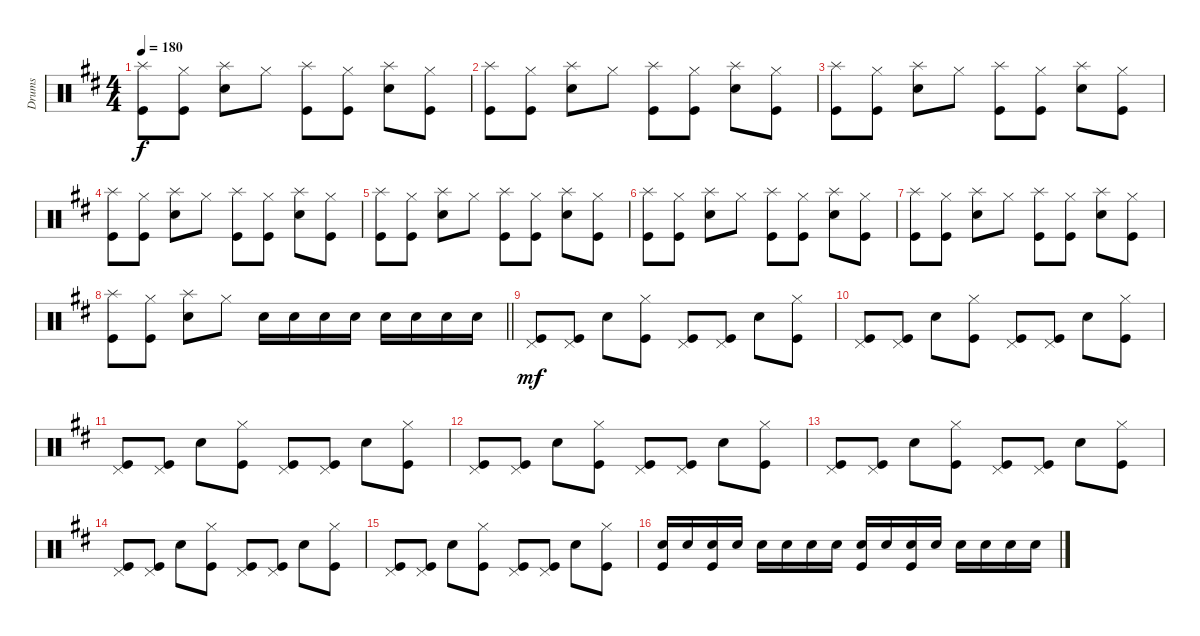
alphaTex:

\track ("Drums" "Drums") {instrument percussion}
\staff {score}
\articulation defaults
\ts (4 4)
\tempo 180
\clef neutral
\ks d
("Kick (hit)" "Splash (hit)").8{dy f} ("Kick (hit)" "Hi-Hat (closed)").8 ("Snare (hit) 2" "Splash (hit)").8 "Hi-Hat (closed)".8 ("Kick (hit)" "Splash (hit)").8 ("Kick (hit)" "Hi-Hat (closed)").8 ("Snare (hit) 2" "Splash (hit)").8 ("Kick (hit)" "Hi-Hat (closed)").8 |
("Kick (hit)" "Splash (hit)").8 ("Kick (hit)" "Hi-Hat (closed)").8 ("Snare (hit) 2" "Splash (hit)").8 "Hi-Hat (closed)".8 ("Kick (hit)" "Splash (hit)").8 ("Kick (hit)" "Hi-Hat (closed)").8 ("Snare (hit) 2" "Splash (hit)").8 ("Kick (hit)" "Hi-Hat (closed)").8 |
("Kick (hit)" "Splash (hit)").8 ("Kick (hit)" "Hi-Hat (closed)").8 ("Snare (hit) 2" "Splash (hit)").8 "Hi-Hat (closed)".8 ("Kick (hit)" "Splash (hit)").8 ("Kick (hit)" "Hi-Hat (closed)").8 ("Snare (hit) 2" "Splash (hit)").8 ("Kick (hit)" "Hi-Hat (closed)").8 |
("Kick (hit)" "Splash (hit)").8 ("Kick (hit)" "Hi-Hat (closed)").8 ("Snare (hit) 2" "Splash (hit)").8 "Hi-Hat (closed)".8 ("Kick (hit)" "Splash (hit)").8 ("Kick (hit)" "Hi-Hat (closed)").8 ("Snare (hit) 2" "Splash (hit)").8 ("Kick (hit)" "Hi-Hat (closed)").8 |
("Kick (hit)" "Splash (hit)").8 ("Kick (hit)" "Hi-Hat (closed)").8 ("Snare (hit) 2" "Splash (hit)").8 "Hi-Hat (closed)".8 ("Kick (hit)" "Splash (hit)").8 ("Kick (hit)" "Hi-Hat (closed)").8 ("Snare (hit) 2" "Splash (hit)").8 ("Kick (hit)" "Hi-Hat (closed)").8 |
("Kick (hit)" "Splash (hit)").8 ("Kick (hit)" "Hi-Hat (closed)").8 ("Snare (hit) 2" "Splash (hit)").8 "Hi-Hat (closed)".8 ("Kick (hit)" "Splash (hit)").8 ("Kick (hit)" "Hi-Hat (closed)").8 ("Snare (hit) 2" "Splash (hit)").8 ("Kick (hit)" "Hi-Hat (closed)").8 |
("Kick (hit)" "Splash (hit)").8 ("Kick (hit)" "Hi-Hat (closed)").8 ("Snare (hit) 2" "Splash (hit)").8 "Hi-Hat (closed)".8 ("Kick (hit)" "Splash (hit)").8 ("Kick (hit)" "Hi-Hat (closed)").8 ("Snare (hit) 2" "Splash (hit)").8 ("Kick (hit)" "Hi-Hat (closed)").8 |
\barLineRight lightlight
("Kick (hit)" "Splash (hit)").8 ("Kick (hit)" "Hi-Hat (closed)").8 ("Snare (hit) 2" "Splash (hit)").8 "Hi-Hat (closed)".8 "Snare (hit) 2".16 "Snare (hit) 2".16 "Snare (hit) 2".16 "Snare (hit) 2".16 "Snare (hit) 2".16 "Snare (hit) 2".16 "Snare (hit) 2".16 "Snare (hit) 2".16 |
("Kick (hit)" "Pedal Hi-Hat (hit)").8{dy mf} ("Kick (hit)" "Pedal Hi-Hat (hit)").8 "Snare (hit) 2".8 ("Kick (hit)" "Hi-Hat (closed)").8 ("Kick (hit)" "Pedal Hi-Hat (hit)").8 ("Kick (hit)" "Pedal Hi-Hat (hit)").8 "Snare (hit) 2".8 ("Kick (hit)" "Hi-Hat (closed)").8 |
("Kick (hit)" "Pedal Hi-Hat (hit)").8 ("Kick (hit)" "Pedal Hi-Hat (hit)").8 "Snare (hit) 2".8 ("Kick (hit)" "Hi-Hat (closed)").8 ("Kick (hit)" "Pedal Hi-Hat (hit)").8 ("Kick (hit)" "Pedal Hi-Hat (hit)").8 "Snare (hit) 2".8 ("Kick (hit)" "Hi-Hat (closed)").8 |
("Kick (hit)" "Pedal Hi-Hat (hit)").8 ("Kick (hit)" "Pedal Hi-Hat (hit)").8 "Snare (hit) 2".8 ("Kick (hit)" "Hi-Hat (closed)").8 ("Kick (hit)" "Pedal Hi-Hat (hit)").8 ("Kick (hit)" "Pedal Hi-Hat (hit)").8 "Snare (hit) 2".8 ("Kick (hit)" "Hi-Hat (closed)").8 |
("Kick (hit)" "Pedal Hi-Hat (hit)").8 ("Kick (hit)" "Pedal Hi-Hat (hit)").8 "Snare (hit) 2".8 ("Kick (hit)" "Hi-Hat (closed)").8 ("Kick (hit)" "Pedal Hi-Hat (hit)").8 ("Kick (hit)" "Pedal Hi-Hat (hit)").8 "Snare (hit) 2".8 ("Kick (hit)" "Hi-Hat (closed)").8 |
("Kick (hit)" "Pedal Hi-Hat (hit)").8 ("Kick (hit)" "Pedal Hi-Hat (hit)").8 "Snare (hit) 2".8 ("Kick (hit)" "Hi-Hat (closed)").8 ("Kick (hit)" "Pedal Hi-Hat (hit)").8 ("Kick (hit)" "Pedal Hi-Hat (hit)").8 "Snare (hit) 2".8 ("Kick (hit)" "Hi-Hat (closed)").8 |
("Kick (hit)" "Pedal Hi-Hat (hit)").8 ("Kick (hit)" "Pedal Hi-Hat (hit)").8 "Snare (hit) 2".8 ("Kick (hit)" "Hi-Hat (closed)").8 ("Kick (hit)" "Pedal Hi-Hat (hit)").8 ("Kick (hit)" "Pedal Hi-Hat (hit)").8 "Snare (hit) 2".8 ("Kick (hit)" "Hi-Hat (closed)").8 |
("Kick (hit)" "Pedal Hi-Hat (hit)").8 ("Kick (hit)" "Pedal Hi-Hat (hit)").8 "Snare (hit) 2".8 ("Kick (hit)" "Hi-Hat (closed)").8 ("Kick (hit)" "Pedal Hi-Hat (hit)").8 ("Kick (hit)" "Pedal Hi-Hat (hit)").8 "Snare (hit) 2".8 ("Kick (hit)" "Hi-Hat (closed)").8 |
("Snare (hit) 2" "Kick (hit)").16 "Snare (hit) 2".16 ("Snare (hit) 2" "Kick (hit)").16 "Snare (hit) 2".16 "Snare (hit) 2".16 "Snare (hit) 2".16 "Snare (hit) 2".16 "Snare (hit) 2".16 ("Snare (hit) 2" "Kick (hit)").16 "Snare (hit) 2".16 ("Snare (hit) 2" "Kick (hit)").16 "Snare (hit) 2".16 "Snare (hit) 2".16 "Snare (hit) 2".16 "Snare (hit) 2".16 "Snare (hit) 2".16
